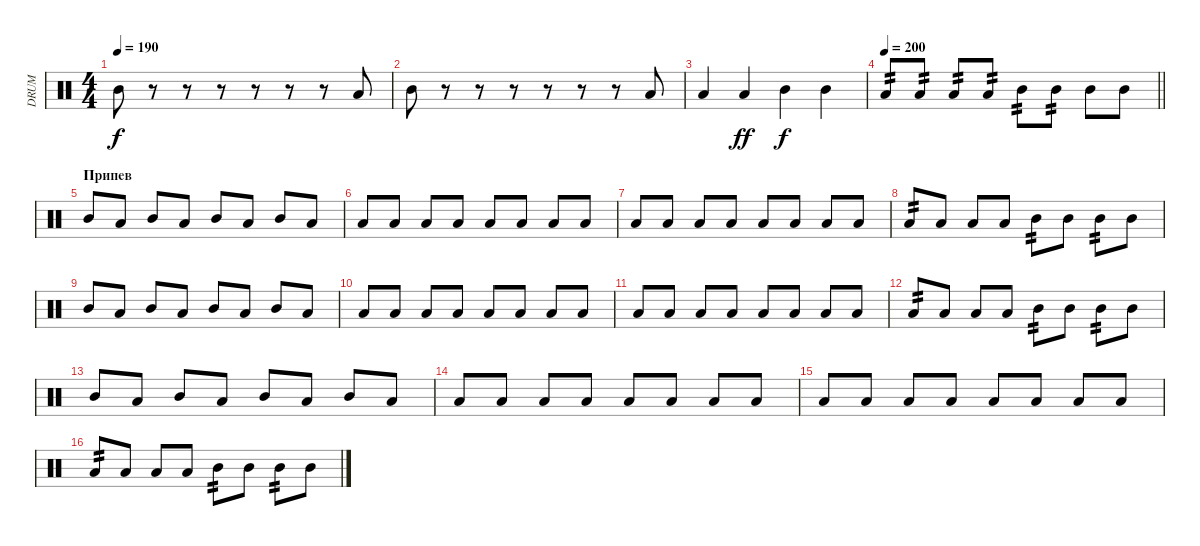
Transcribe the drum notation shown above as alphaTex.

\track ("DRUM" "DRUM") {instrument percussion}
\staff {score}
\articulation defaults
\ts (4 4)
\tempo 190
\clef neutral
\ks c "Mid Tom (hit)".8{dy f}
r.8 r.8 r.8 r.8 r.8 r.8 "Low Floor Tom (hit)".8 |
"Mid Tom (hit)".8 r.8 r.8 r.8 r.8 r.8 r.8 "Low Floor Tom (hit)".8 |
"Low Tom (hit)".4 "Low Floor Tom (hit)".4{dy ff} "Mid Tom (hit)".4{dy f} "Mid Tom (hit)".4 |
\tempo 200
\barLineRight lightlight "Low Tom (hit)".8{tp 2} "Low Tom (hit)".8{tp 2} "Low Tom (hit)".8{tp 2} "Low Tom (hit)".8{tp 2} "Mid Tom (hit)".8{tp 2} "Mid Tom (hit)".8{tp 2} "Mid Tom (hit)".8 "Mid Tom (hit)".8
|
\section ("" "Припев")
"Mid Tom (hit)".8 "Low Tom (hit)".8 "Mid Tom (hit)".8 "Low Tom (hit)".8 "Mid Tom (hit)".8 "Low Tom (hit)".8 "Mid Tom (hit)".8 "Low Tom (hit)".8 |
"Low Tom (hit)".8 "Low Floor Tom (hit)".8 "Low Tom (hit)".8 "Low Floor Tom (hit)".8 "Low Tom (hit)".8 "Low Floor Tom (hit)".8 "Low Tom (hit)".8 "Low Floor Tom (hit)".8 |
"Low Tom (hit)".8 "Low Tom (hit)".8 "Low Tom (hit)".8 "Low Tom (hit)".8 "Low Tom (hit)".8 "Low Tom (hit)".8 "Low Tom (hit)".8 "Low Tom (hit)".8 |
"Low Tom (hit)".8{tp 2} "Low Tom (hit)".8 "Low Tom (hit)".8 "Low Tom (hit)".8 "Mid Tom (hit)".8{tp 2} "Mid Tom (hit)".8 "Mid Tom (hit)".8{tp 2} "Mid Tom (hit)".8 |
"Mid Tom (hit)".8 "Low Tom (hit)".8 "Mid Tom (hit)".8 "Low Tom (hit)".8 "Mid Tom (hit)".8 "Low Tom (hit)".8 "Mid Tom (hit)".8 "Low Tom (hit)".8 |
"Low Tom (hit)".8 "Low Floor Tom (hit)".8 "Low Tom (hit)".8 "Low Floor Tom (hit)".8 "Low Tom (hit)".8 "Low Floor Tom (hit)".8 "Low Tom (hit)".8 "Low Floor Tom (hit)".8 |
"Low Tom (hit)".8 "Low Tom (hit)".8 "Low Tom (hit)".8 "Low Tom (hit)".8 "Low Tom (hit)".8 "Low Tom (hit)".8 "Low Tom (hit)".8 "Low Tom (hit)".8 |
"Low Tom (hit)".8{tp 2} "Low Tom (hit)".8 "Low Tom (hit)".8 "Low Tom (hit)".8 "Mid Tom (hit)".8{tp 2} "Mid Tom (hit)".8 "Mid Tom (hit)".8{tp 2} "Mid Tom (hit)".8 |
"Mid Tom (hit)".8 "Low Tom (hit)".8 "Mid Tom (hit)".8 "Low Tom (hit)".8 "Mid Tom (hit)".8 "Low Tom (hit)".8 "Mid Tom (hit)".8 "Low Tom (hit)".8 |
"Low Tom (hit)".8 "Low Floor Tom (hit)".8 "Low Tom (hit)".8 "Low Floor Tom (hit)".8 "Low Tom (hit)".8 "Low Floor Tom (hit)".8 "Low Tom (hit)".8 "Low Floor Tom (hit)".8 |
"Low Tom (hit)".8 "Low Tom (hit)".8 "Low Tom (hit)".8 "Low Tom (hit)".8 "Low Tom (hit)".8 "Low Tom (hit)".8 "Low Tom (hit)".8 "Low Tom (hit)".8 |
"Low Tom (hit)".8{tp 2} "Low Tom (hit)".8 "Low Tom (hit)".8 "Low Tom (hit)".8 "Mid Tom (hit)".8{tp 2} "Mid Tom (hit)".8 "Mid Tom (hit)".8{tp 2} "Mid Tom (hit)".8
